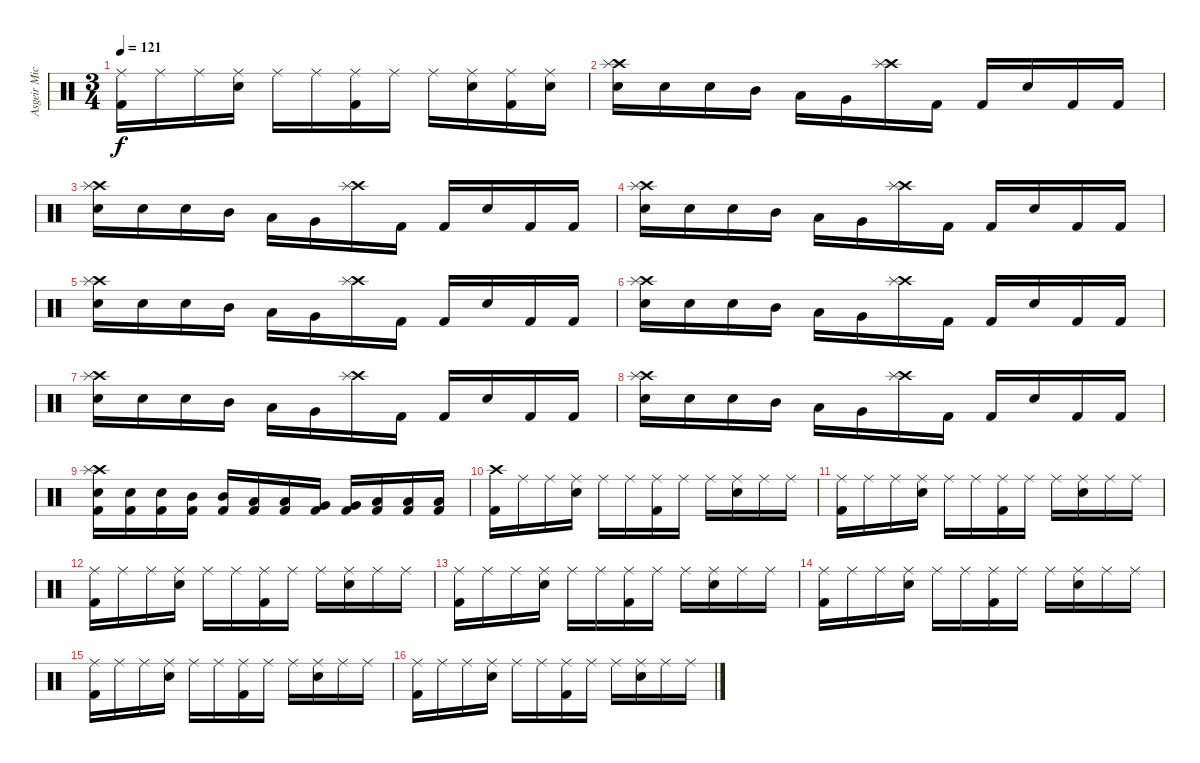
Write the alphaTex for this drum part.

\track ("Asgeir Mickelson" "Asgeir Mic") {instrument percussion}
\staff {score}
\articulation defaults
\ts (3 4)
\tempo 121
\clef neutral
\ks c
("Ride (middle)" "Kick (hit) 2").16{dy f} "Ride (middle)".16 "Ride (middle)".16 ("Ride (middle)" "Electric Snare (hit)").16 "Ride (middle)".16 "Ride (middle)".16 ("Ride (middle)" "Kick (hit) 2").16 "Ride (middle)".16 "Ride (middle)".16 ("Ride (middle)" "Electric Snare (hit)").16 ("Ride (middle)" "Kick (hit) 2").16 ("Ride (middle)" "Electric Snare (hit)").16 |
("Crash high (hit)" "Splash (hit)" "Electric Snare (hit)").16 "Electric Snare (hit)".16 "Electric Snare (hit)".16 "Mid Tom (hit)".16 "Low Tom (hit)".16 "Very Low Tom (hit)".16 ("Crash high (hit)" "Splash (hit)").16 "Kick (hit) 2".16 "Kick (hit) 2".16 "Electric Snare (hit)".16 "Kick (hit) 2".16 "Kick (hit) 2".16 |
("Crash high (hit)" "Splash (hit)" "Electric Snare (hit)").16 "Electric Snare (hit)".16 "Electric Snare (hit)".16 "Mid Tom (hit)".16 "Low Tom (hit)".16 "Very Low Tom (hit)".16 ("Crash high (hit)" "Splash (hit)").16 "Kick (hit) 2".16 "Kick (hit) 2".16 "Electric Snare (hit)".16 "Kick (hit) 2".16 "Kick (hit) 2".16 |
("Crash high (hit)" "Splash (hit)" "Electric Snare (hit)").16 "Electric Snare (hit)".16 "Electric Snare (hit)".16 "Mid Tom (hit)".16 "Low Tom (hit)".16 "Very Low Tom (hit)".16 ("Crash high (hit)" "Splash (hit)").16 "Kick (hit) 2".16 "Kick (hit) 2".16 "Electric Snare (hit)".16 "Kick (hit) 2".16 "Kick (hit) 2".16 |
("Crash high (hit)" "Splash (hit)" "Electric Snare (hit)").16 "Electric Snare (hit)".16 "Electric Snare (hit)".16 "Mid Tom (hit)".16 "Low Tom (hit)".16 "Very Low Tom (hit)".16 ("Crash high (hit)" "Splash (hit)").16 "Kick (hit) 2".16 "Kick (hit) 2".16 "Electric Snare (hit)".16 "Kick (hit) 2".16 "Kick (hit) 2".16 |
("Crash high (hit)" "Splash (hit)" "Electric Snare (hit)").16 "Electric Snare (hit)".16 "Electric Snare (hit)".16 "Mid Tom (hit)".16 "Low Tom (hit)".16 "Very Low Tom (hit)".16 ("Crash high (hit)" "Splash (hit)").16 "Kick (hit) 2".16 "Kick (hit) 2".16 "Electric Snare (hit)".16 "Kick (hit) 2".16 "Kick (hit) 2".16 |
("Crash high (hit)" "Splash (hit)" "Electric Snare (hit)").16 "Electric Snare (hit)".16 "Electric Snare (hit)".16 "Mid Tom (hit)".16 "Low Tom (hit)".16 "Very Low Tom (hit)".16 ("Crash high (hit)" "Splash (hit)").16 "Kick (hit) 2".16 "Kick (hit) 2".16 "Electric Snare (hit)".16 "Kick (hit) 2".16 "Kick (hit) 2".16 |
("Crash high (hit)" "Splash (hit)" "Electric Snare (hit)").16 "Electric Snare (hit)".16 "Electric Snare (hit)".16 "Mid Tom (hit)".16 "Low Tom (hit)".16 "Very Low Tom (hit)".16 ("Crash high (hit)" "Splash (hit)").16 "Kick (hit) 2".16 "Kick (hit) 2".16 "Electric Snare (hit)".16 "Kick (hit) 2".16 "Kick (hit) 2".16 |
("Crash high (hit)" "Splash (hit)" "Electric Snare (hit)" "Kick (hit) 2").16 ("Electric Snare (hit)" "Kick (hit) 2").16 ("Electric Snare (hit)" "Kick (hit) 2").16 ("Mid Tom (hit)" "Kick (hit) 2").16 ("Mid Tom (hit)" "Kick (hit) 2").16 ("Low Tom (hit)" "Kick (hit) 2").16 ("Low Tom (hit)" "Kick (hit) 2").16 ("Very Low Tom (hit)" "Kick (hit) 2").16 ("Very Low Tom (hit)" "Kick (hit) 2").16 ("Low Floor Tom (hit)" "Kick (hit) 2").16 ("Low Floor Tom (hit)" "Kick (hit) 2").16 ("Low Floor Tom (hit)" "Kick (hit) 2").16 |
("Crash high (hit)" "Kick (hit) 2").16 "Ride (middle)".16 "Ride (middle)".16 ("Ride (middle)" "Electric Snare (hit)").16 "Ride (middle)".16 "Ride (middle)".16 ("Ride (middle)" "Kick (hit) 2").16 "Ride (middle)".16 "Ride (middle)".16 ("Ride (middle)" "Electric Snare (hit)").16 "Ride (middle)".16 "Ride (middle)".16 |
("Ride (middle)" "Kick (hit) 2").16 "Ride (middle)".16 "Ride (middle)".16 ("Ride (middle)" "Electric Snare (hit)").16 "Ride (middle)".16 "Ride (middle)".16 ("Ride (middle)" "Kick (hit) 2").16 "Ride (middle)".16 "Ride (middle)".16 ("Ride (middle)" "Electric Snare (hit)").16 "Ride (middle)".16 "Ride (middle)".16 |
("Ride (middle)" "Kick (hit) 2").16 "Ride (middle)".16 "Ride (middle)".16 ("Ride (middle)" "Electric Snare (hit)").16 "Ride (middle)".16 "Ride (middle)".16 ("Ride (middle)" "Kick (hit) 2").16 "Ride (middle)".16 "Ride (middle)".16 ("Ride (middle)" "Electric Snare (hit)").16 "Ride (middle)".16 "Ride (middle)".16 |
("Ride (middle)" "Kick (hit) 2").16 "Ride (middle)".16 "Ride (middle)".16 ("Ride (middle)" "Electric Snare (hit)").16 "Ride (middle)".16 "Ride (middle)".16 ("Ride (middle)" "Kick (hit) 2").16 "Ride (middle)".16 "Ride (middle)".16 ("Ride (middle)" "Electric Snare (hit)").16 "Ride (middle)".16 "Ride (middle)".16 |
("Ride (middle)" "Kick (hit) 2").16 "Ride (middle)".16 "Ride (middle)".16 ("Ride (middle)" "Electric Snare (hit)").16 "Ride (middle)".16 "Ride (middle)".16 ("Ride (middle)" "Kick (hit) 2").16 "Ride (middle)".16 "Ride (middle)".16 ("Ride (middle)" "Electric Snare (hit)").16 "Ride (middle)".16 "Ride (middle)".16 |
("Ride (middle)" "Kick (hit) 2").16 "Ride (middle)".16 "Ride (middle)".16 ("Ride (middle)" "Electric Snare (hit)").16 "Ride (middle)".16 "Ride (middle)".16 ("Ride (middle)" "Kick (hit) 2").16 "Ride (middle)".16 "Ride (middle)".16 ("Ride (middle)" "Electric Snare (hit)").16 "Ride (middle)".16 "Ride (middle)".16 |
("Ride (middle)" "Kick (hit) 2").16 "Ride (middle)".16 "Ride (middle)".16 ("Ride (middle)" "Electric Snare (hit)").16 "Ride (middle)".16 "Ride (middle)".16 ("Ride (middle)" "Kick (hit) 2").16 "Ride (middle)".16 "Ride (middle)".16 ("Ride (middle)" "Electric Snare (hit)").16 "Ride (middle)".16 "Ride (middle)".16
